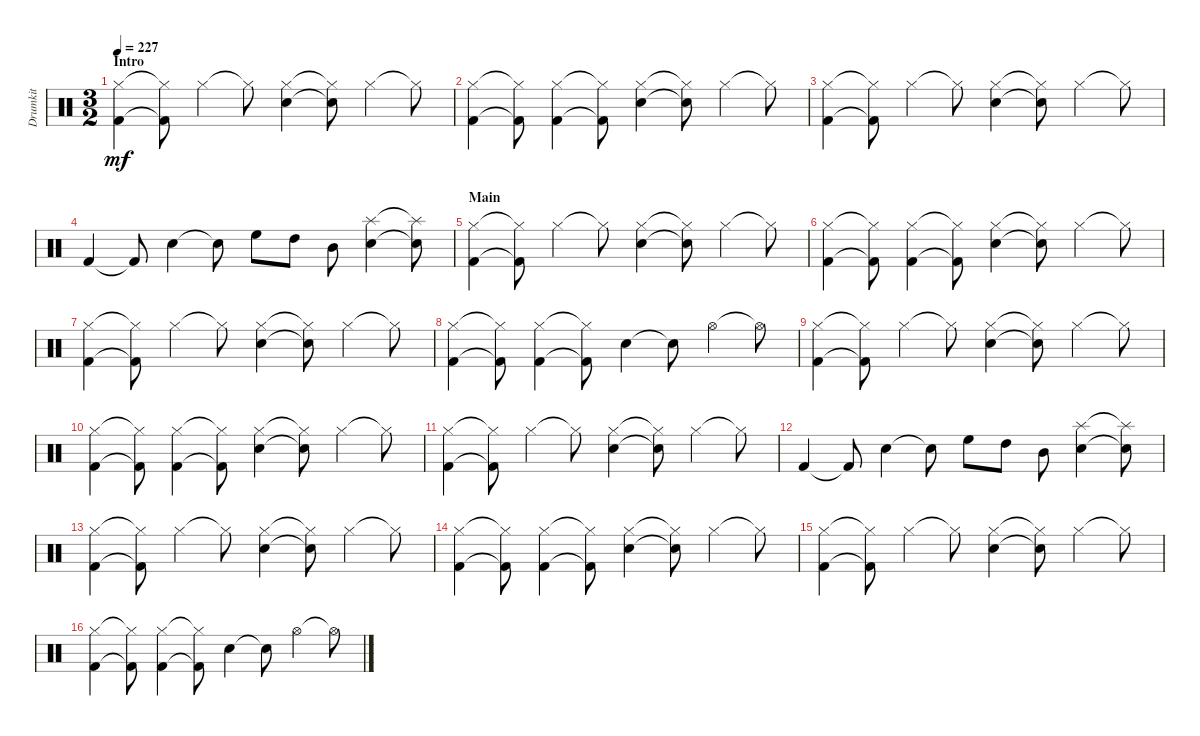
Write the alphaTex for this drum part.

\track ("Drumkit" "Drumkit") {instrument percussion}
\staff {score}
\articulation defaults
\ts (3 2)
\section ("" "Intro")
\tempo 227
\clef neutral
\ks c
("Kick (hit) 2" "Hi-Hat (closed)").4{dy mf} ("Kick (hit) 2"{t} "Hi-Hat (closed)"{t}).8 "Hi-Hat (closed)".4 "Hi-Hat (closed)"{t}.8 ("Electric Snare (hit)" "Hi-Hat (closed)").4 ("Electric Snare (hit)"{t} "Hi-Hat (closed)"{t}).8 "Hi-Hat (closed)".4 "Hi-Hat (closed)"{t}.8 |
("Kick (hit) 2" "Hi-Hat (closed)").4 ("Kick (hit) 2"{t} "Hi-Hat (closed)"{t}).8 ("Kick (hit) 2" "Hi-Hat (closed)").4 ("Kick (hit) 2"{t} "Hi-Hat (closed)"{t}).8 ("Electric Snare (hit)" "Hi-Hat (closed)").4 ("Electric Snare (hit)"{t} "Hi-Hat (closed)"{t}).8 "Hi-Hat (closed)".4 "Hi-Hat (closed)"{t}.8 |
("Kick (hit) 2" "Hi-Hat (closed)").4 ("Kick (hit) 2"{t} "Hi-Hat (closed)"{t}).8 "Hi-Hat (closed)".4 "Hi-Hat (closed)"{t}.8 ("Electric Snare (hit)" "Hi-Hat (closed)").4 ("Electric Snare (hit)"{t} "Hi-Hat (closed)"{t}).8 "Hi-Hat (closed)".4 "Hi-Hat (closed)"{t}.8 |
"Kick (hit) 2".4 "Kick (hit) 2"{t}.8 "Electric Snare (hit)".4 "Electric Snare (hit)"{t}.8 "High Floor Tom (hit)".8 "High Tom (hit)".8 "Mid Tom (hit)".8 ("Electric Snare (hit)" "Splash (hit)").4 ("Electric Snare (hit)"{t} "Splash (hit)"{t}).8 |
\section ("" "Main")
("Kick (hit) 2" "Hi-Hat (closed)").4 ("Kick (hit) 2"{t} "Hi-Hat (closed)"{t}).8 "Hi-Hat (closed)".4 "Hi-Hat (closed)"{t}.8 ("Electric Snare (hit)" "Hi-Hat (closed)").4 ("Electric Snare (hit)"{t} "Hi-Hat (closed)"{t}).8 "Hi-Hat (closed)".4 "Hi-Hat (closed)"{t}.8 |
("Kick (hit) 2" "Hi-Hat (closed)").4 ("Kick (hit) 2"{t} "Hi-Hat (closed)"{t}).8 ("Kick (hit) 2" "Hi-Hat (closed)").4 ("Kick (hit) 2"{t} "Hi-Hat (closed)"{t}).8 ("Electric Snare (hit)" "Hi-Hat (closed)").4 ("Electric Snare (hit)"{t} "Hi-Hat (closed)"{t}).8 "Hi-Hat (closed)".4 "Hi-Hat (closed)"{t}.8 |
("Kick (hit) 2" "Hi-Hat (closed)").4 ("Kick (hit) 2"{t} "Hi-Hat (closed)"{t}).8 "Hi-Hat (closed)".4 "Hi-Hat (closed)"{t}.8 ("Electric Snare (hit)" "Hi-Hat (closed)").4 ("Electric Snare (hit)"{t} "Hi-Hat (closed)"{t}).8 "Hi-Hat (closed)".4 "Hi-Hat (closed)"{t}.8 |
("Kick (hit) 2" "Hi-Hat (closed)").4 ("Kick (hit) 2"{t} "Hi-Hat (closed)"{t}).8 ("Kick (hit) 2" "Hi-Hat (closed)").4 ("Kick (hit) 2"{t} "Hi-Hat (closed)"{t}).8 "Electric Snare (hit)".4 "Electric Snare (hit)"{t}.8 "Hi-Hat (open)".4 "Hi-Hat (open)"{t}.8 |
("Kick (hit) 2" "Hi-Hat (closed)").4 ("Kick (hit) 2"{t} "Hi-Hat (closed)"{t}).8 "Hi-Hat (closed)".4 "Hi-Hat (closed)"{t}.8 ("Electric Snare (hit)" "Hi-Hat (closed)").4 ("Electric Snare (hit)"{t} "Hi-Hat (closed)"{t}).8 "Hi-Hat (closed)".4 "Hi-Hat (closed)"{t}.8 |
("Kick (hit) 2" "Hi-Hat (closed)").4 ("Kick (hit) 2"{t} "Hi-Hat (closed)"{t}).8 ("Kick (hit) 2" "Hi-Hat (closed)").4 ("Kick (hit) 2"{t} "Hi-Hat (closed)"{t}).8 ("Electric Snare (hit)" "Hi-Hat (closed)").4 ("Electric Snare (hit)"{t} "Hi-Hat (closed)"{t}).8 "Hi-Hat (closed)".4 "Hi-Hat (closed)"{t}.8 |
("Kick (hit) 2" "Hi-Hat (closed)").4 ("Kick (hit) 2"{t} "Hi-Hat (closed)"{t}).8 "Hi-Hat (closed)".4 "Hi-Hat (closed)"{t}.8 ("Electric Snare (hit)" "Hi-Hat (closed)").4 ("Electric Snare (hit)"{t} "Hi-Hat (closed)"{t}).8 "Hi-Hat (closed)".4 "Hi-Hat (closed)"{t}.8 |
"Kick (hit) 2".4 "Kick (hit) 2"{t}.8 "Electric Snare (hit)".4 "Electric Snare (hit)"{t}.8 "High Floor Tom (hit)".8 "High Tom (hit)".8 "Mid Tom (hit)".8 ("Electric Snare (hit)" "Splash (hit)").4 ("Electric Snare (hit)"{t} "Splash (hit)"{t}).8 |
("Kick (hit) 2" "Hi-Hat (closed)").4 ("Kick (hit) 2"{t} "Hi-Hat (closed)"{t}).8 "Hi-Hat (closed)".4 "Hi-Hat (closed)"{t}.8 ("Electric Snare (hit)" "Hi-Hat (closed)").4 ("Electric Snare (hit)"{t} "Hi-Hat (closed)"{t}).8 "Hi-Hat (closed)".4 "Hi-Hat (closed)"{t}.8 |
("Kick (hit) 2" "Hi-Hat (closed)").4 ("Kick (hit) 2"{t} "Hi-Hat (closed)"{t}).8 ("Kick (hit) 2" "Hi-Hat (closed)").4 ("Kick (hit) 2"{t} "Hi-Hat (closed)"{t}).8 ("Electric Snare (hit)" "Hi-Hat (closed)").4 ("Electric Snare (hit)"{t} "Hi-Hat (closed)"{t}).8 "Hi-Hat (closed)".4 "Hi-Hat (closed)"{t}.8 |
("Kick (hit) 2" "Hi-Hat (closed)").4 ("Kick (hit) 2"{t} "Hi-Hat (closed)"{t}).8 "Hi-Hat (closed)".4 "Hi-Hat (closed)"{t}.8 ("Electric Snare (hit)" "Hi-Hat (closed)").4 ("Electric Snare (hit)"{t} "Hi-Hat (closed)"{t}).8 "Hi-Hat (closed)".4 "Hi-Hat (closed)"{t}.8 |
("Kick (hit) 2" "Hi-Hat (closed)").4 ("Kick (hit) 2"{t} "Hi-Hat (closed)"{t}).8 ("Kick (hit) 2" "Hi-Hat (closed)").4 ("Kick (hit) 2"{t} "Hi-Hat (closed)"{t}).8 "Electric Snare (hit)".4 "Electric Snare (hit)"{t}.8 "Hi-Hat (open)".4 "Hi-Hat (open)"{t}.8
